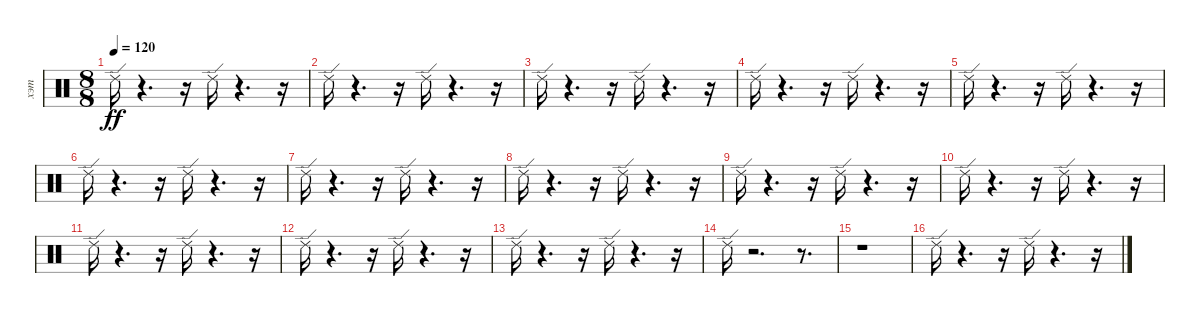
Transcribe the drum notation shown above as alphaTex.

\track ("хэт" "хэт") {instrument percussion}
\staff {score}
\articulation defaults
\ts (8 8)
\tempo 120
\clef neutral
\ks c "Ride (edge) 2".16{dy ff}
r.4{d} r.16 "Ride (edge) 2".16 r.4{d} r.16 |
"Ride (edge) 2".16 r.4{d} r.16 "Ride (edge) 2".16 r.4{d} r.16 |
"Ride (edge) 2".16 r.4{d} r.16 "Ride (edge) 2".16 r.4{d} r.16 |
"Ride (edge) 2".16 r.4{d} r.16 "Ride (edge) 2".16 r.4{d} r.16 |
"Ride (edge) 2".16 r.4{d} r.16 "Ride (edge) 2".16 r.4{d} r.16 |
"Ride (edge) 2".16 r.4{d} r.16 "Ride (edge) 2".16 r.4{d} r.16 |
"Ride (edge) 2".16 r.4{d} r.16 "Ride (edge) 2".16 r.4{d} r.16 |
"Ride (edge) 2".16 r.4{d} r.16 "Ride (edge) 2".16 r.4{d} r.16 |
"Ride (edge) 2".16 r.4{d} r.16 "Ride (edge) 2".16 r.4{d} r.16 |
"Ride (edge) 2".16 r.4{d} r.16 "Ride (edge) 2".16 r.4{d} r.16 |
"Ride (edge) 2".16 r.4{d} r.16 "Ride (edge) 2".16 r.4{d} r.16 |
"Ride (edge) 2".16 r.4{d} r.16 "Ride (edge) 2".16 r.4{d} r.16 |
"Ride (edge) 2".16 r.4{d} r.16 "Ride (edge) 2".16 r.4{d} r.16 |
"Ride (edge) 2".16 r.2{d} r.8{d} |
r.1 |
"Ride (edge) 2".16 r.4{d} r.16 "Ride (edge) 2".16 r.4{d} r.16
